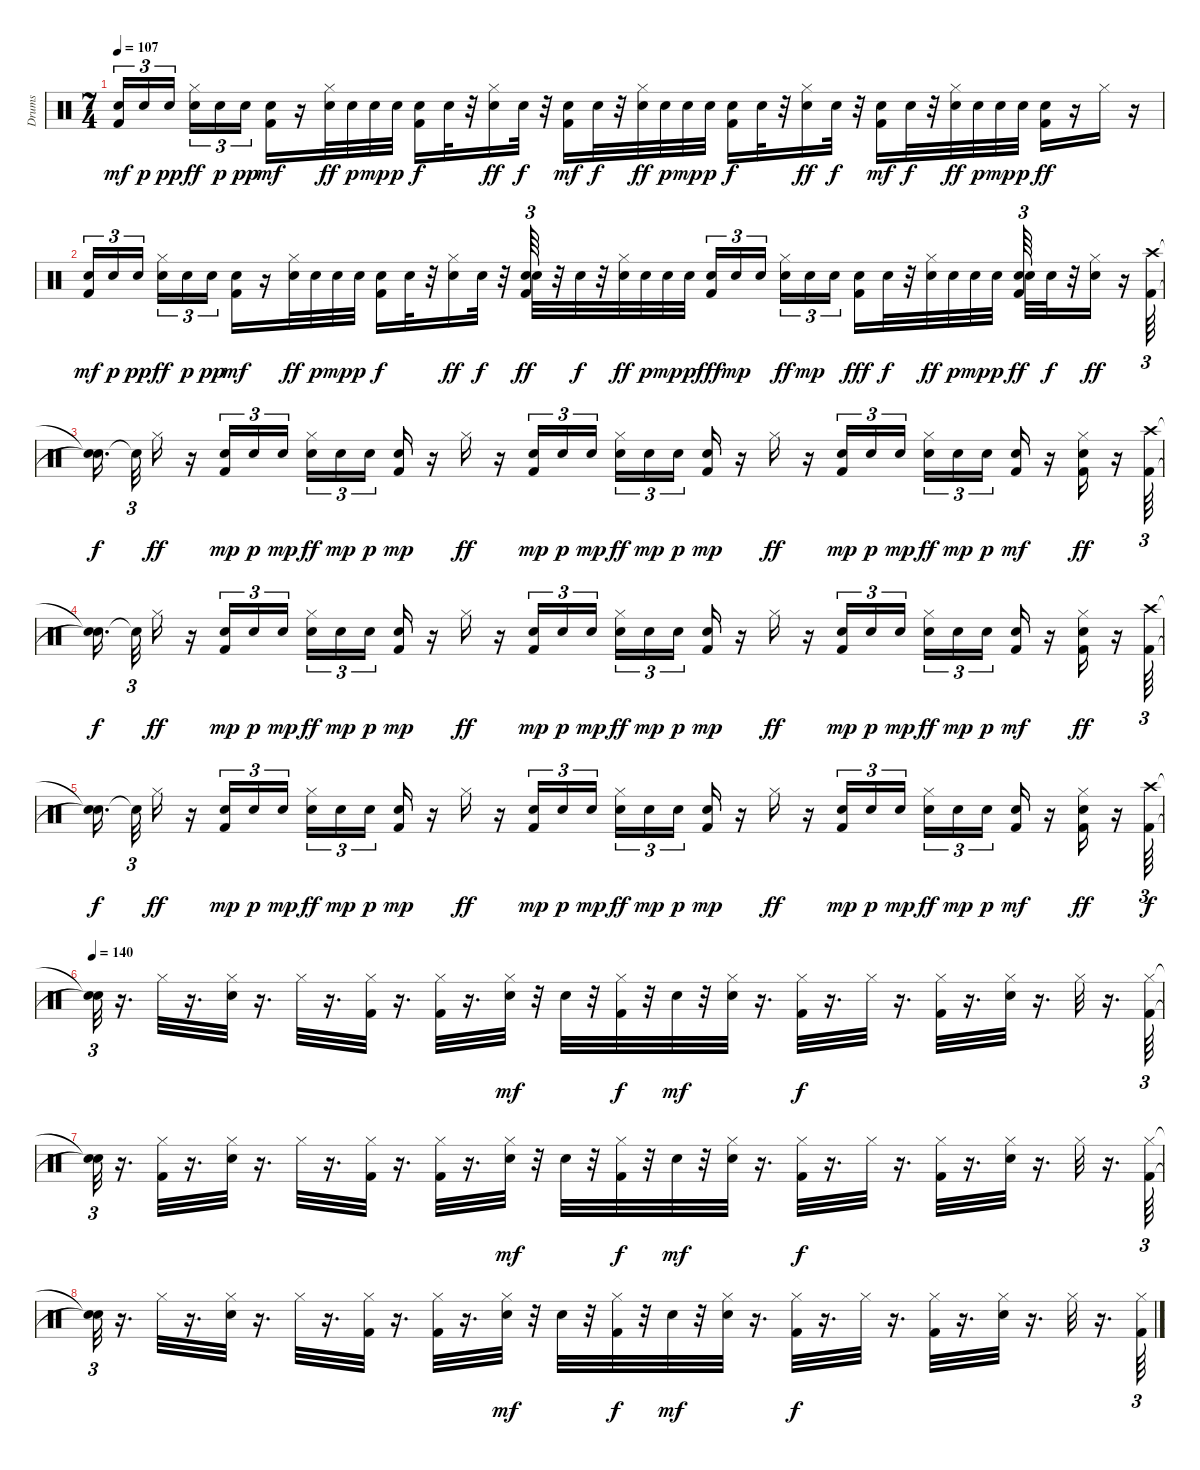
\track ("Drums" "Drums") {instrument percussion}
\staff {score}
\articulation defaults
\ts (7 4)
\tempo 107
\clef neutral
\ks c
("Kick (hit) 2" "Snare (hit) 2").16{tu (3 2) dy mf} "Snare (hit) 2".16{tu (3 2) dy p} "Snare (hit) 2".16{tu (3 2) dy pp beam splitsecondary} ("Snare (hit) 2" "Hi-Hat (closed)").16{tu (3 2) dy ff} "Snare (hit) 2".16{tu (3 2) dy p} "Snare (hit) 2".16{tu (3 2) dy pp} ("Kick (hit) 2" "Snare (hit) 2").16{dy mf} r.16 ("Snare (hit) 2" "Hi-Hat (closed)").32{dy ff} "Snare (hit) 2".32{dy p} "Snare (hit) 2".32{dy mp} "Snare (hit) 2".32{dy p} ("Kick (hit) 2" "Snare (hit) 2").16{dy f} "Snare (hit) 2".32 r.32 ("Snare (hit) 2" "Hi-Hat (closed)").16{dy ff} "Snare (hit) 2".32{dy f} r.32 ("Kick (hit) 2" "Snare (hit) 2").16{dy mf} "Snare (hit) 2".32{dy f} r.32 ("Snare (hit) 2" "Hi-Hat (closed)").32{dy ff} "Snare (hit) 2".32{dy p} "Snare (hit) 2".32{dy mp} "Snare (hit) 2".32{dy p} ("Kick (hit) 2" "Snare (hit) 2").16{dy f} "Snare (hit) 2".32 r.32 ("Snare (hit) 2" "Hi-Hat (closed)").16{dy ff} "Snare (hit) 2".32{dy f} r.32 ("Kick (hit) 2" "Snare (hit) 2").16{dy mf} "Snare (hit) 2".32{dy f} r.32 ("Snare (hit) 2" "Hi-Hat (closed)").32{dy ff} "Snare (hit) 2".32{dy p} "Snare (hit) 2".32{dy mp} "Snare (hit) 2".32{dy p} ("Kick (hit) 2" "Snare (hit) 2").16{dy ff} r.16 "Hi-Hat (closed)".16 r.16 |
("Kick (hit) 2" "Snare (hit) 2").16{tu (3 2) dy mf} "Snare (hit) 2".16{tu (3 2) dy p} "Snare (hit) 2".16{tu (3 2) dy pp beam splitsecondary} ("Snare (hit) 2" "Hi-Hat (closed)").16{tu (3 2) dy ff} "Snare (hit) 2".16{tu (3 2) dy p} "Snare (hit) 2".16{tu (3 2) dy pp} ("Kick (hit) 2" "Snare (hit) 2").16{dy mf} r.16 ("Snare (hit) 2" "Hi-Hat (closed)").32{dy ff} "Snare (hit) 2".32{dy p} "Snare (hit) 2".32{dy mp} "Snare (hit) 2".32{dy p} ("Kick (hit) 2" "Snare (hit) 2").16{dy f} "Snare (hit) 2".32 r.32 ("Snare (hit) 2" "Hi-Hat (closed)").16{dy ff} "Snare (hit) 2".32{dy f} r.32 ("Kick (hit) 2" "Snare (hit) 2").64{tu (3 2) dy ff} "Snare (hit) 2".32 r.32 "Snare (hit) 2".32{dy f} r.32 ("Snare (hit) 2" "Hi-Hat (closed)").32{dy ff} "Snare (hit) 2".32{dy p} "Snare (hit) 2".32{dy mp} "Snare (hit) 2".32{dy p} ("Kick (hit) 2" "Snare (hit) 2").16{tu (3 2) dy fff} "Snare (hit) 2".16{tu (3 2) dy mp} "Snare (hit) 2".16{tu (3 2) beam splitsecondary} ("Snare (hit) 2" "Hi-Hat (closed)").16{tu (3 2) dy ff} "Snare (hit) 2".16{tu (3 2) dy mp} "Snare (hit) 2".16{tu (3 2)} ("Kick (hit) 2" "Snare (hit) 2").16{dy fff} "Snare (hit) 2".32{dy f} r.32 ("Snare (hit) 2" "Hi-Hat (closed)").32{dy ff} "Snare (hit) 2".32{dy p} "Snare (hit) 2".32{dy mp} "Snare (hit) 2".32{dy p} ("Kick (hit) 2" "Snare (hit) 2").64{tu (3 2) dy ff beam splitsecondary} "Snare (hit) 2".32 "Snare (hit) 2".32{dy f} r.32 ("Snare (hit) 2" "Hi-Hat (closed)").16{dy ff} r.16 ("Kick (hit) 2" "Crash high (hit)").64{tu (3 2) volume 16} |
("Snare (hit)"{t} "Snare (hit)"{t}).16{d dy f beam splitsecondary} "Snare (hit)"{t}.32{tu (3 2)} "Hi-Hat (closed)".16{dy ff volume 16} r.16 ("Kick (hit) 2" "Snare (hit) 2").16{tu (3 2) dy mp volume 15} "Snare (hit) 2".16{tu (3 2) dy p volume 15} "Snare (hit) 2".16{tu (3 2) dy mp beam splitsecondary} ("Snare (hit) 2" "Hi-Hat (closed)").16{tu (3 2) dy ff volume 15} "Snare (hit) 2".16{tu (3 2) dy mp volume 15} "Snare (hit) 2".16{tu (3 2) dy p volume 15 beam splitsecondary} ("Kick (hit) 2" "Snare (hit) 2").16{dy mp} r.16 "Hi-Hat (closed)".16{dy ff volume 14} r.16 ("Kick (hit) 2" "Snare (hit) 2").16{tu (3 2) dy mp volume 14} "Snare (hit) 2".16{tu (3 2) dy p volume 14} "Snare (hit) 2".16{tu (3 2) dy mp beam splitsecondary} ("Snare (hit) 2" "Hi-Hat (closed)").16{tu (3 2) dy ff volume 14} "Snare (hit) 2".16{tu (3 2) dy mp volume 14} "Snare (hit) 2".16{tu (3 2) dy p volume 14 beam splitsecondary} ("Kick (hit) 2" "Snare (hit) 2").16{dy mp} r.16 "Hi-Hat (closed)".16{dy ff volume 14} r.16 ("Kick (hit) 2" "Snare (hit) 2").16{tu (3 2) dy mp volume 13} "Snare (hit) 2".16{tu (3 2) dy p} "Snare (hit) 2".16{tu (3 2) dy mp volume 13 beam splitsecondary} ("Snare (hit) 2" "Hi-Hat (closed)").16{tu (3 2) dy ff volume 13} "Snare (hit) 2".16{tu (3 2) dy mp volume 13} "Snare (hit) 2".16{tu (3 2) dy p beam splitsecondary} ("Kick (hit) 2" "Snare (hit) 2").16{dy mf volume 13} r.16 ("Kick (hit) 2" "Snare (hit) 2" "Hi-Hat (closed)").16{dy ff volume 12} r.16 ("Kick (hit) 2" "Crash high (hit)").64{tu (3 2) volume 12} |
("Snare (hit)"{t} "Snare (hit)"{t}).16{d dy f beam splitsecondary} "Snare (hit)"{t}.32{tu (3 2)} "Hi-Hat (closed)".16{dy ff volume 12} r.16 ("Kick (hit) 2" "Snare (hit) 2").16{tu (3 2) dy mp volume 12} "Snare (hit) 2".16{tu (3 2) dy p volume 11} "Snare (hit) 2".16{tu (3 2) dy mp beam splitsecondary} ("Snare (hit) 2" "Hi-Hat (closed)").16{tu (3 2) dy ff volume 11} "Snare (hit) 2".16{tu (3 2) dy mp volume 11} "Snare (hit) 2".16{tu (3 2) dy p volume 11 beam splitsecondary} ("Kick (hit) 2" "Snare (hit) 2").16{dy mp} r.16 "Hi-Hat (closed)".16{dy ff volume 11} r.16 ("Kick (hit) 2" "Snare (hit) 2").16{tu (3 2) dy mp volume 10} "Snare (hit) 2".16{tu (3 2) dy p volume 10} "Snare (hit) 2".16{tu (3 2) dy mp beam splitsecondary} ("Snare (hit) 2" "Hi-Hat (closed)").16{tu (3 2) dy ff volume 10} "Snare (hit) 2".16{tu (3 2) dy mp volume 10} "Snare (hit) 2".16{tu (3 2) dy p volume 10 beam splitsecondary} ("Kick (hit) 2" "Snare (hit) 2").16{dy mp} r.16 "Hi-Hat (closed)".16{dy ff volume 10} r.16 ("Kick (hit) 2" "Snare (hit) 2").16{tu (3 2) dy mp volume 9} "Snare (hit) 2".16{tu (3 2) dy p} "Snare (hit) 2".16{tu (3 2) dy mp volume 9 beam splitsecondary} ("Snare (hit) 2" "Hi-Hat (closed)").16{tu (3 2) dy ff volume 9} "Snare (hit) 2".16{tu (3 2) dy mp volume 9} "Snare (hit) 2".16{tu (3 2) dy p beam splitsecondary} ("Kick (hit) 2" "Snare (hit) 2").16{dy mf volume 9} r.16 ("Kick (hit) 2" "Snare (hit) 2" "Hi-Hat (closed)").16{dy ff volume 8} r.16 ("Kick (hit) 2" "Crash high (hit)").64{tu (3 2) volume 8} |
("Snare (hit)"{t} "Snare (hit)"{t}).16{d dy f beam splitsecondary} "Snare (hit)"{t}.32{tu (3 2)} "Hi-Hat (closed)".16{dy ff volume 8} r.16 ("Kick (hit) 2" "Snare (hit) 2").16{tu (3 2) dy mp volume 8} "Snare (hit) 2".16{tu (3 2) dy p volume 8} "Snare (hit) 2".16{tu (3 2) dy mp volume 7 beam splitsecondary} ("Snare (hit) 2" "Hi-Hat (closed)").16{tu (3 2) dy ff} "Snare (hit) 2".16{tu (3 2) dy mp volume 7} "Snare (hit) 2".16{tu (3 2) dy p volume 7 beam splitsecondary} ("Kick (hit) 2" "Snare (hit) 2").16{dy mp} r.16 "Hi-Hat (closed)".16{dy ff volume 7} r.16 ("Kick (hit) 2" "Snare (hit) 2").16{tu (3 2) dy mp volume 6} "Snare (hit) 2".16{tu (3 2) dy p volume 6} "Snare (hit) 2".16{tu (3 2) dy mp beam splitsecondary} ("Snare (hit) 2" "Hi-Hat (closed)").16{tu (3 2) dy ff volume 6} "Snare (hit) 2".16{tu (3 2) dy mp volume 6} "Snare (hit) 2".16{tu (3 2) dy p volume 6 beam splitsecondary} ("Kick (hit) 2" "Snare (hit) 2").16{dy mp} r.16 "Hi-Hat (closed)".16{dy ff volume 6} r.16 ("Kick (hit) 2" "Snare (hit) 2").16{tu (3 2) dy mp volume 5} "Snare (hit) 2".16{tu (3 2) dy p volume 5} "Snare (hit) 2".16{tu (3 2) dy mp beam splitsecondary} ("Snare (hit) 2" "Hi-Hat (closed)").16{tu (3 2) dy ff volume 5} "Snare (hit) 2".16{tu (3 2) dy mp volume 5} "Snare (hit) 2".16{tu (3 2) dy p beam splitsecondary} ("Kick (hit) 2" "Snare (hit) 2").16{dy mf volume 5} r.16 ("Kick (hit) 2" "Snare (hit) 2" "Hi-Hat (closed)").16{dy ff volume 5} r.16 ("Kick (hit) 2" "Crash high (hit)").64{tu (3 2) dy f volume 16} |
\tempo 140
("Snare (hit)"{t} "Snare (hit)"{t}).32{tu (3 2)} r.16{d} "Hi-Hat (closed)".32 r.16{d} ("Hi-Hat (closed)" "Snare (hit) 2").32 r.16{d} "Hi-Hat (closed)".32 r.16{d} ("Kick (hit) 2" "Hi-Hat (closed)").32 r.16{d} ("Kick (hit) 2" "Hi-Hat (closed)").32 r.16{d} ("Snare (hit) 2" "Hi-Hat (closed)").32{dy mf} r.32 "Snare (hit) 2".32 r.32 ("Kick (hit) 2" "Hi-Hat (closed)").32{dy f} r.32 "Snare (hit) 2".32{dy mf} r.32 ("Snare (hit) 2" "Hi-Hat (closed)").32 r.16{d} ("Hi-Hat (closed)" "Kick (hit) 2").32{dy f} r.16{d} "Hi-Hat (closed)".32 r.16{d} ("Kick (hit) 2" "Hi-Hat (closed)").32 r.16{d} ("Snare (hit) 2" "Hi-Hat (closed)").32 r.16{d} "Hi-Hat (closed)".32 r.16{d} ("Kick (hit) 2" "Hi-Hat (closed)").64{tu (3 2)} |
("Snare (hit)"{t} "Snare (hit)"{t}).32{tu (3 2)} r.16{d} ("Kick (hit) 2" "Hi-Hat (closed)").32 r.16{d} ("Snare (hit) 2" "Hi-Hat (closed)").32 r.16{d} "Hi-Hat (closed)".32 r.16{d} ("Hi-Hat (closed)" "Kick (hit) 2").32 r.16{d} ("Hi-Hat (closed)" "Kick (hit) 2").32 r.16{d} ("Snare (hit) 2" "Hi-Hat (closed)").32{dy mf} r.32 "Snare (hit) 2".32 r.32 ("Kick (hit) 2" "Hi-Hat (closed)").32{dy f} r.32 "Snare (hit) 2".32{dy mf} r.32 ("Hi-Hat (closed)" "Snare (hit) 2").32 r.16{d} ("Kick (hit) 2" "Hi-Hat (closed)").32{dy f} r.16{d} "Hi-Hat (closed)".32 r.16{d} ("Kick (hit) 2" "Hi-Hat (closed)").32 r.16{d} ("Snare (hit) 2" "Hi-Hat (closed)").32 r.16{d} "Hi-Hat (closed)".32 r.16{d} ("Kick (hit) 2" "Hi-Hat (closed)").64{tu (3 2)} |
("Snare (hit)"{t} "Snare (hit)"{t}).32{tu (3 2)} r.16{d} "Hi-Hat (closed)".32 r.16{d} ("Hi-Hat (closed)" "Snare (hit) 2").32 r.16{d} "Hi-Hat (closed)".32 r.16{d} ("Kick (hit) 2" "Hi-Hat (closed)").32 r.16{d} ("Kick (hit) 2" "Hi-Hat (closed)").32 r.16{d} ("Snare (hit) 2" "Hi-Hat (closed)").32{dy mf} r.32 "Snare (hit) 2".32 r.32 ("Kick (hit) 2" "Hi-Hat (closed)").32{dy f} r.32 "Snare (hit) 2".32{dy mf} r.32 ("Snare (hit) 2" "Hi-Hat (closed)").32 r.16{d} ("Hi-Hat (closed)" "Kick (hit) 2").32{dy f} r.16{d} "Hi-Hat (closed)".32 r.16{d} ("Kick (hit) 2" "Hi-Hat (closed)").32 r.16{d} ("Snare (hit) 2" "Hi-Hat (closed)").32 r.16{d} "Hi-Hat (closed)".32 r.16{d} ("Kick (hit) 2" "Hi-Hat (closed)").64{tu (3 2)}
